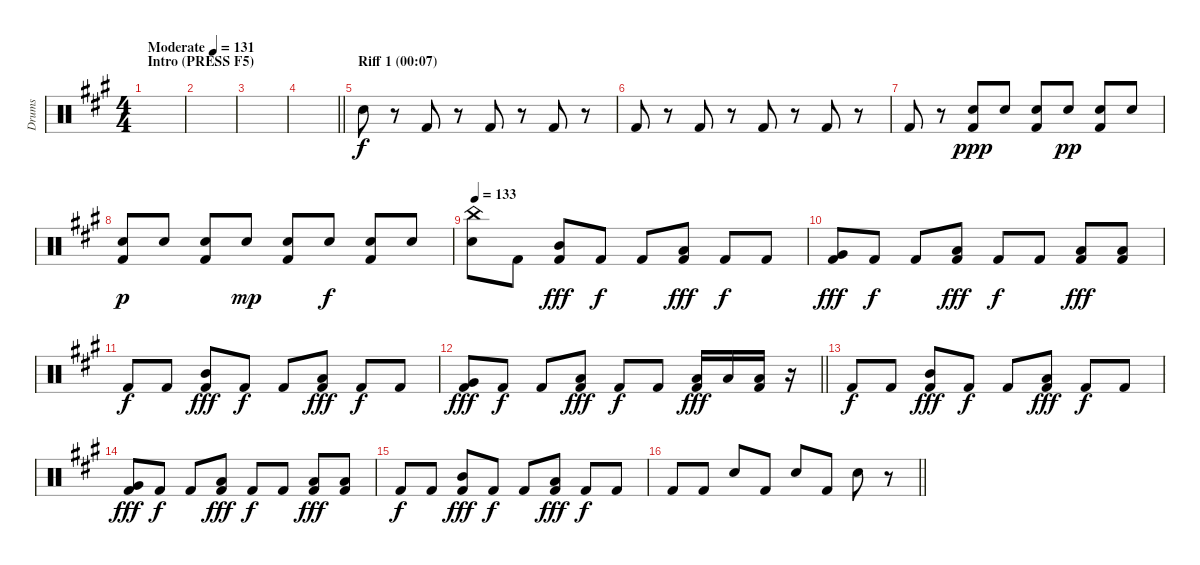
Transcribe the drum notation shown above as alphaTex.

\track ("Drums" "Drums") {instrument percussion}
\staff {score}
\articulation defaults
\ts (4 4)
\section ("" "Intro (PRESS F5)")
\tempo (131 "Moderate")
\clef neutral
\ks a
|
|
|
\barLineRight lightlight
|
\section ("" "Riff 1 (00:07)")
"Snare (hit) 2".8 r.8 "Kick (hit) 2".8 r.8 "Kick (hit) 2".8 r.8 "Kick (hit) 2".8 r.8 |
"Kick (hit) 2".8 r.8 "Kick (hit) 2".8 r.8 "Kick (hit) 2".8 r.8 "Kick (hit) 2".8 r.8 |
"Kick (hit) 2".8 r.8 ("Snare (hit) 2" "Kick (hit) 2").8{dy ppp} "Snare (hit) 2".8 ("Snare (hit) 2" "Kick (hit) 2").8 "Snare (hit) 2".8{dy pp} ("Snare (hit) 2" "Kick (hit) 2").8 "Snare (hit) 2".8 |
("Snare (hit) 2" "Kick (hit) 2").8{dy p} "Snare (hit) 2".8 ("Snare (hit) 2" "Kick (hit) 2").8 "Snare (hit) 2".8{dy mp} ("Snare (hit) 2" "Kick (hit) 2").8 "Snare (hit) 2".8{dy f} ("Snare (hit) 2" "Kick (hit) 2").8 "Snare (hit) 2".8 |
\tempo 133
("China (hit)" "Snare (hit) 2").8 "Kick (hit) 2".8 ("Mid Tom (hit)" "Kick (hit) 2").8{dy fff} "Kick (hit) 2".8{dy f} "Kick (hit) 2".8 ("Low Tom (hit)" "Kick (hit) 2").8{dy fff} "Kick (hit) 2".8{dy f} "Kick (hit) 2".8 |
("Very Low Tom (hit)" "Kick (hit) 2").8{dy fff} "Kick (hit) 2".8{dy f} "Kick (hit) 2".8 ("Low Floor Tom (hit)" "Kick (hit) 2").8{dy fff} "Kick (hit) 2".8{dy f} "Kick (hit) 2".8 ("Low Tom (hit)" "Kick (hit) 2").8{dy fff} ("Low Tom (hit)" "Kick (hit) 2").8 |
"Kick (hit) 2".8{dy f} "Kick (hit) 2".8 ("Mid Tom (hit)" "Kick (hit) 2").8{dy fff} "Kick (hit) 2".8{dy f} "Kick (hit) 2".8 ("Low Tom (hit)" "Kick (hit) 2").8{dy fff} "Kick (hit) 2".8{dy f} "Kick (hit) 2".8 |
\barLineRight lightlight
("Very Low Tom (hit)" "Kick (hit) 2").8{dy fff} "Kick (hit) 2".8{dy f} "Kick (hit) 2".8 ("Low Floor Tom (hit)" "Kick (hit) 2").8{dy fff} "Kick (hit) 2".8{dy f} "Kick (hit) 2".8 ("Low Tom (hit)" "Kick (hit) 2").16{dy fff} "Low Tom (hit)".16 ("Low Tom (hit)" "Kick (hit) 2").16 r.16 |
\section ("" "")
"Kick (hit) 2".8{dy f} "Kick (hit) 2".8 ("Mid Tom (hit)" "Kick (hit) 2").8{dy fff} "Kick (hit) 2".8{dy f} "Kick (hit) 2".8 ("Low Tom (hit)" "Kick (hit) 2").8{dy fff} "Kick (hit) 2".8{dy f} "Kick (hit) 2".8 |
("Very Low Tom (hit)" "Kick (hit) 2").8{dy fff} "Kick (hit) 2".8{dy f} "Kick (hit) 2".8 ("Low Floor Tom (hit)" "Kick (hit) 2").8{dy fff} "Kick (hit) 2".8{dy f} "Kick (hit) 2".8 ("Low Tom (hit)" "Kick (hit) 2").8{dy fff} ("Low Tom (hit)" "Kick (hit) 2").8 |
"Kick (hit) 2".8{dy f} "Kick (hit) 2".8 ("Mid Tom (hit)" "Kick (hit) 2").8{dy fff} "Kick (hit) 2".8{dy f} "Kick (hit) 2".8 ("Low Tom (hit)" "Kick (hit) 2").8{dy fff} "Kick (hit) 2".8{dy f} "Kick (hit) 2".8 |
\barLineRight lightlight "Kick (hit) 2".8 "Kick (hit) 2".8 "Snare (hit) 2".8 "Kick (hit) 2".8 "Snare (hit) 2".8 "Kick (hit) 2".8 "Snare (hit) 2".8
r.8
